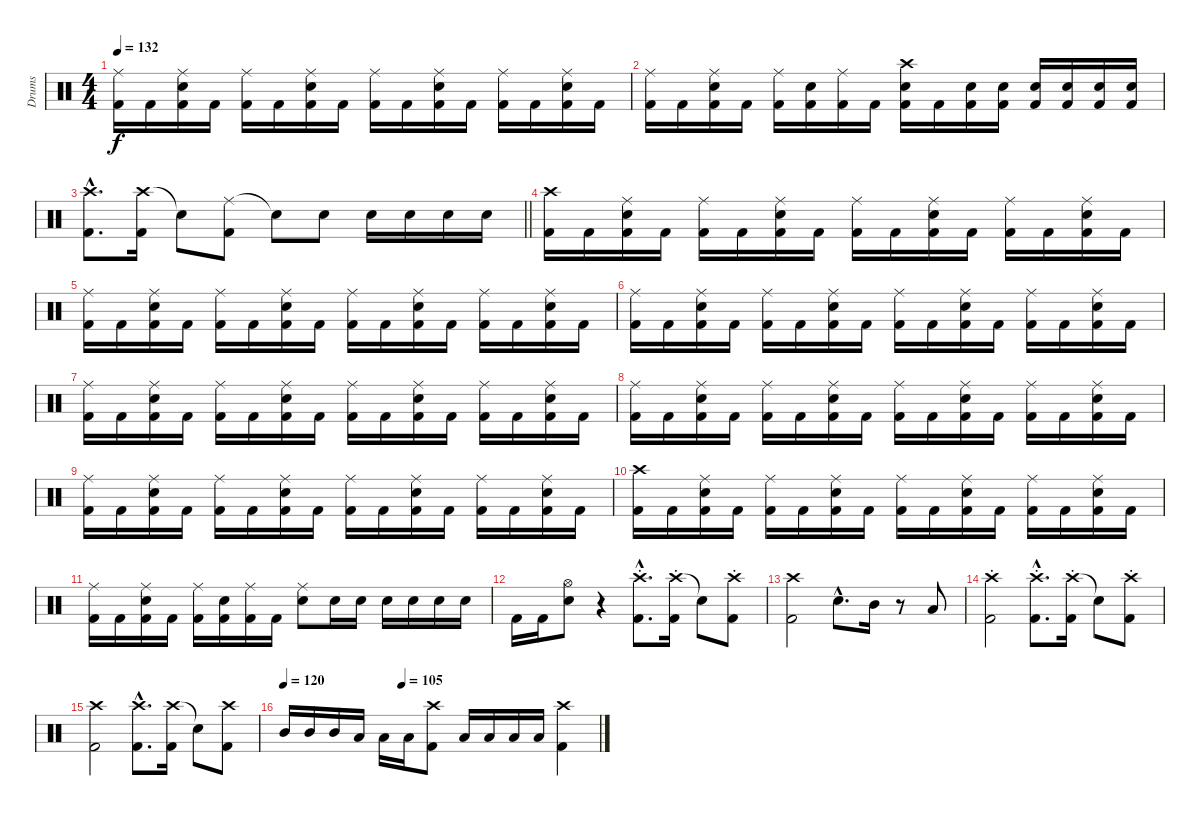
\track ("Drums" "Drums") {instrument percussion}
\staff {score}
\articulation defaults
\ts (4 4)
\tempo 132
\clef neutral
\ks c
("Ride (middle)" "Kick (hit) 2").16{dy f} "Kick (hit) 2".16 ("Ride (middle)" "Snare (hit) 2" "Kick (hit) 2").16 "Kick (hit) 2".16 ("Ride (middle)" "Kick (hit) 2").16 "Kick (hit) 2".16 ("Ride (middle)" "Snare (hit) 2" "Kick (hit) 2").16 "Kick (hit) 2".16 ("Ride (middle)" "Kick (hit) 2").16 "Kick (hit) 2".16 ("Ride (middle)" "Snare (hit) 2" "Kick (hit) 2").16 "Kick (hit) 2".16 ("Ride (middle)" "Kick (hit) 2").16 "Kick (hit) 2".16 ("Ride (middle)" "Snare (hit) 2" "Kick (hit) 2").16 "Kick (hit) 2".16 |
("Ride (middle)" "Kick (hit) 2").16 "Kick (hit) 2".16 ("Ride (middle)" "Snare (hit) 2" "Kick (hit) 2").16 "Kick (hit) 2".16 ("Ride (middle)" "Kick (hit) 2").16 ("Snare (hit) 2" "Kick (hit) 2").16 ("Ride (middle)" "Kick (hit) 2").16 "Kick (hit) 2".16 ("Crash high (hit)" "Snare (hit) 2" "Kick (hit) 2").16 "Kick (hit) 2".16 ("Snare (hit) 2" "Kick (hit) 2").16 ("Snare (hit) 2" "Kick (hit) 2").16 ("Snare (hit) 2" "Kick (hit) 2").16 ("Snare (hit) 2" "Kick (hit) 2").16 ("Snare (hit) 2" "Kick (hit) 2").16 ("Snare (hit) 2" "Kick (hit) 2").16 |
\barLineRight lightlight
("Crash high (hit)"{hac} "Kick (hit) 2"{hac}).8{d} ("Crash high (hit)" "Kick (hit) 2").16 "Snare (hit)"{t}.8 ("Ride (middle)" "Kick (hit) 2").8 "Snare (hit)"{t}.8 "Snare (hit) 2".8 "Snare (hit) 2".16 "Snare (hit) 2".16 "Snare (hit) 2".16 "Snare (hit) 2".16 |
("Crash high (hit)" "Kick (hit) 2").16 "Kick (hit) 2".16 ("Ride (middle)" "Snare (hit) 2" "Kick (hit) 2").16 "Kick (hit) 2".16 ("Ride (middle)" "Kick (hit) 2").16 "Kick (hit) 2".16 ("Ride (middle)" "Snare (hit) 2" "Kick (hit) 2").16 "Kick (hit) 2".16 ("Ride (middle)" "Kick (hit) 2").16 "Kick (hit) 2".16 ("Ride (middle)" "Snare (hit) 2" "Kick (hit) 2").16 "Kick (hit) 2".16 ("Ride (middle)" "Kick (hit) 2").16 "Kick (hit) 2".16 ("Ride (middle)" "Snare (hit) 2" "Kick (hit) 2").16 "Kick (hit) 2".16 |
("Ride (middle)" "Kick (hit) 2").16 "Kick (hit) 2".16 ("Ride (middle)" "Snare (hit) 2" "Kick (hit) 2").16 "Kick (hit) 2".16 ("Ride (middle)" "Kick (hit) 2").16 "Kick (hit) 2".16 ("Ride (middle)" "Snare (hit) 2" "Kick (hit) 2").16 "Kick (hit) 2".16 ("Ride (middle)" "Kick (hit) 2").16 "Kick (hit) 2".16 ("Ride (middle)" "Snare (hit) 2" "Kick (hit) 2").16 "Kick (hit) 2".16 ("Ride (middle)" "Kick (hit) 2").16 "Kick (hit) 2".16 ("Ride (middle)" "Snare (hit) 2" "Kick (hit) 2").16 "Kick (hit) 2".16 |
("Ride (middle)" "Kick (hit) 2").16 "Kick (hit) 2".16 ("Ride (middle)" "Snare (hit) 2" "Kick (hit) 2").16 "Kick (hit) 2".16 ("Ride (middle)" "Kick (hit) 2").16 "Kick (hit) 2".16 ("Ride (middle)" "Snare (hit) 2" "Kick (hit) 2").16 "Kick (hit) 2".16 ("Ride (middle)" "Kick (hit) 2").16 "Kick (hit) 2".16 ("Ride (middle)" "Snare (hit) 2" "Kick (hit) 2").16 "Kick (hit) 2".16 ("Ride (middle)" "Kick (hit) 2").16 "Kick (hit) 2".16 ("Ride (middle)" "Snare (hit) 2" "Kick (hit) 2").16 "Kick (hit) 2".16 |
("Ride (middle)" "Kick (hit) 2").16 "Kick (hit) 2".16 ("Ride (middle)" "Snare (hit) 2" "Kick (hit) 2").16 "Kick (hit) 2".16 ("Ride (middle)" "Kick (hit) 2").16 "Kick (hit) 2".16 ("Ride (middle)" "Snare (hit) 2" "Kick (hit) 2").16 "Kick (hit) 2".16 ("Ride (middle)" "Kick (hit) 2").16 "Kick (hit) 2".16 ("Ride (middle)" "Snare (hit) 2" "Kick (hit) 2").16 "Kick (hit) 2".16 ("Ride (middle)" "Kick (hit) 2").16 "Kick (hit) 2".16 ("Ride (middle)" "Snare (hit) 2" "Kick (hit) 2").16 "Kick (hit) 2".16 |
("Ride (middle)" "Kick (hit) 2").16 "Kick (hit) 2".16 ("Ride (middle)" "Snare (hit) 2" "Kick (hit) 2").16 "Kick (hit) 2".16 ("Ride (middle)" "Kick (hit) 2").16 "Kick (hit) 2".16 ("Ride (middle)" "Snare (hit) 2" "Kick (hit) 2").16 "Kick (hit) 2".16 ("Ride (middle)" "Kick (hit) 2").16 "Kick (hit) 2".16 ("Ride (middle)" "Snare (hit) 2" "Kick (hit) 2").16 "Kick (hit) 2".16 ("Ride (middle)" "Kick (hit) 2").16 "Kick (hit) 2".16 ("Ride (middle)" "Snare (hit) 2" "Kick (hit) 2").16 "Kick (hit) 2".16 |
("Ride (middle)" "Kick (hit) 2").16 "Kick (hit) 2".16 ("Ride (middle)" "Snare (hit) 2" "Kick (hit) 2").16 "Kick (hit) 2".16 ("Ride (middle)" "Kick (hit) 2").16 "Kick (hit) 2".16 ("Ride (middle)" "Snare (hit) 2" "Kick (hit) 2").16 "Kick (hit) 2".16 ("Ride (middle)" "Kick (hit) 2").16 "Kick (hit) 2".16 ("Ride (middle)" "Snare (hit) 2" "Kick (hit) 2").16 "Kick (hit) 2".16 ("Ride (middle)" "Kick (hit) 2").16 "Kick (hit) 2".16 ("Ride (middle)" "Snare (hit) 2" "Kick (hit) 2").16 "Kick (hit) 2".16 |
("Crash high (hit)" "Kick (hit) 2").16 "Kick (hit) 2".16 ("Ride (middle)" "Snare (hit) 2" "Kick (hit) 2").16 "Kick (hit) 2".16 ("Ride (middle)" "Kick (hit) 2").16 "Kick (hit) 2".16 ("Ride (middle)" "Snare (hit) 2" "Kick (hit) 2").16 "Kick (hit) 2".16 ("Ride (middle)" "Kick (hit) 2").16 "Kick (hit) 2".16 ("Ride (middle)" "Snare (hit) 2" "Kick (hit) 2").16 "Kick (hit) 2".16 ("Ride (middle)" "Kick (hit) 2").16 "Kick (hit) 2".16 ("Ride (middle)" "Snare (hit) 2" "Kick (hit) 2").16 "Kick (hit) 2".16 |
("Ride (middle)" "Kick (hit) 2").16 "Kick (hit) 2".16 ("Ride (middle)" "Snare (hit) 2" "Kick (hit) 2").16 "Kick (hit) 2".16 ("Ride (middle)" "Kick (hit) 2").16 ("Snare (hit) 2" "Kick (hit) 2").16 ("Ride (middle)" "Kick (hit) 2").16 "Kick (hit) 2".16 ("Ride (middle)" "Snare (hit) 2").8 "Snare (hit) 2".16 "Snare (hit) 2".16 "Snare (hit) 2".16 "Snare (hit) 2".16 "Snare (hit) 2".16 "Snare (hit) 2".16 |
"Kick (hit) 2".16 "Kick (hit) 2".16 ("Hi-Hat (open)" "Snare (hit) 2").8 r.4 ("Crash high (hit)"{hac st} "Kick (hit) 2"{hac st}).8{d} ("Crash high (hit)"{st} "Kick (hit) 2"{st}).16 "Snare (hit)"{t}.8 ("Crash high (hit)"{st} "Kick (hit) 2"{st}).8 |
("Crash high (hit)" "Kick (hit) 2").2 "Snare (hit) 2"{hac}.8{d} "Mid Tom (hit)".16 r.8 "Low Tom (hit)".8 |
("Crash high (hit)"{st} "Kick (hit) 2"{st}).2 ("Crash high (hit)"{hac st} "Kick (hit) 2"{hac st}).8{d} ("Crash high (hit)"{st} "Kick (hit) 2"{st}).16 "Snare (hit)"{t}.8 ("Crash high (hit)"{st} "Kick (hit) 2"{st}).8 |
("Crash high (hit)" "Kick (hit) 2").2 ("Crash high (hit)"{hac} "Kick (hit) 2"{hac}).8{d} ("Crash high (hit)" "Kick (hit) 2").16 "Snare (hit)"{t}.8 ("Crash high (hit)" "Kick (hit) 2").8 |
\tempo 120
\tempo (105 0.375)
"Mid Tom (hit)".16 "Mid Tom (hit)".16 "Mid Tom (hit)".16 "Low Tom (hit)".16 "Low Tom (hit)".16 "Low Tom (hit)".16 ("Crash high (hit)" "Kick (hit) 2").8 "Low Floor Tom (hit)".16 "Low Floor Tom (hit)".16 "Low Floor Tom (hit)".16 "Low Floor Tom (hit)".16 ("Crash high (hit)" "Kick (hit) 2").4
